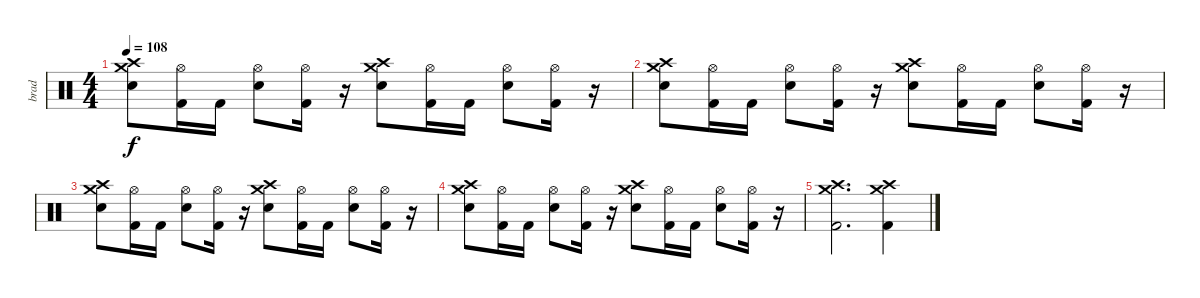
\track ("brad" "brad") {instrument percussion}
\staff {score}
\articulation defaults
\ts (4 4)
\tempo 108
\clef neutral
\ks c
("Crash high (hit)" "Crash medium (hit)" "Electric Snare (hit)").8{dy f} ("Hi-Hat (open)" "Kick (hit) 2").16 "Kick (hit) 2".16 ("Hi-Hat (open)" "Electric Snare (hit)").8 ("Hi-Hat (open)" "Kick (hit) 2").16 r.16 ("Crash high (hit)" "Crash medium (hit)" "Electric Snare (hit)").8 ("Hi-Hat (open)" "Kick (hit) 2").16 "Kick (hit) 2".16 ("Hi-Hat (open)" "Electric Snare (hit)").8 ("Hi-Hat (open)" "Kick (hit) 2").16 r.16 |
("Crash high (hit)" "Crash medium (hit)" "Electric Snare (hit)").8 ("Hi-Hat (open)" "Kick (hit) 2").16 "Kick (hit) 2".16 ("Hi-Hat (open)" "Electric Snare (hit)").8 ("Hi-Hat (open)" "Kick (hit) 2").16 r.16 ("Crash high (hit)" "Crash medium (hit)" "Electric Snare (hit)").8 ("Hi-Hat (open)" "Kick (hit) 2").16 "Kick (hit) 2".16 ("Hi-Hat (open)" "Electric Snare (hit)").8 ("Hi-Hat (open)" "Kick (hit) 2").16 r.16 |
("Crash high (hit)" "Crash medium (hit)" "Electric Snare (hit)").8 ("Hi-Hat (open)" "Kick (hit) 2").16 "Kick (hit) 2".16 ("Hi-Hat (open)" "Electric Snare (hit)").8 ("Hi-Hat (open)" "Kick (hit) 2").16 r.16 ("Crash high (hit)" "Crash medium (hit)" "Electric Snare (hit)").8 ("Hi-Hat (open)" "Kick (hit) 2").16 "Kick (hit) 2".16 ("Hi-Hat (open)" "Electric Snare (hit)").8 ("Hi-Hat (open)" "Kick (hit) 2").16 r.16 |
("Crash high (hit)" "Crash medium (hit)" "Electric Snare (hit)").8 ("Hi-Hat (open)" "Kick (hit) 2").16 "Kick (hit) 2".16 ("Hi-Hat (open)" "Electric Snare (hit)").8 ("Hi-Hat (open)" "Kick (hit) 2").16 r.16 ("Crash high (hit)" "Crash medium (hit)" "Electric Snare (hit)").8 ("Hi-Hat (open)" "Kick (hit) 2").16 "Kick (hit) 2".16 ("Hi-Hat (open)" "Electric Snare (hit)").8 ("Hi-Hat (open)" "Kick (hit) 2").16 r.16 |
("Crash medium (hit)" "Crash high (hit)" "Kick (hit) 2").2{d} ("Crash medium (hit)" "Crash high (hit)" "Kick (hit) 2").4
